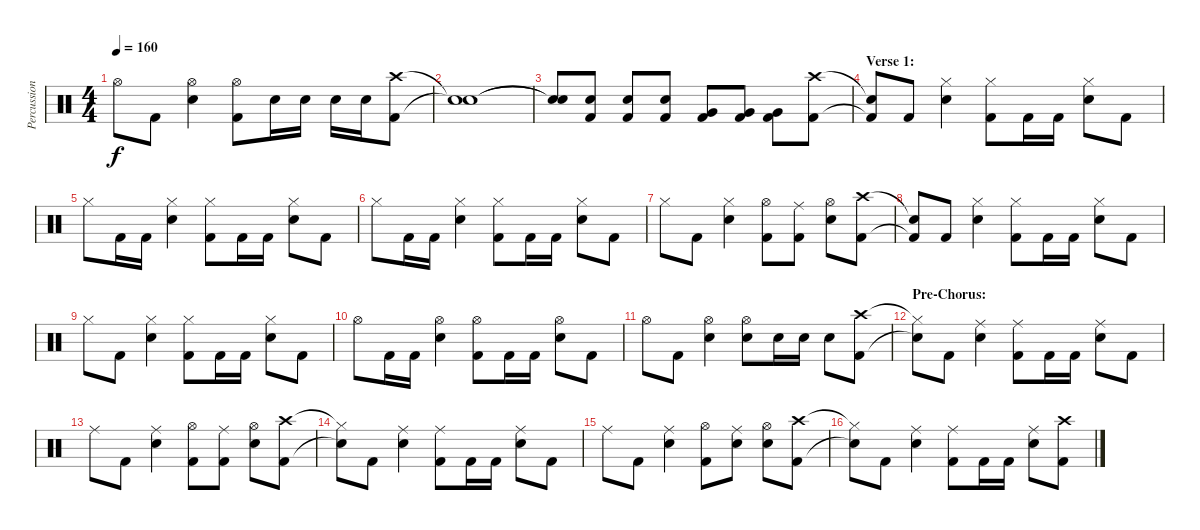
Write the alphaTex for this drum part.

\track ("Percussion" "Percussion") {instrument percussion}
\staff {score}
\articulation defaults
\ts (4 4)
\tempo 160
\clef neutral
\ks c "Hi-Hat (open)".8{dy f} "Kick (hit) 2".8
("Hi-Hat (open)" "Electric Snare (hit)").4 ("Hi-Hat (open)" "Kick (hit) 2").8 "Electric Snare (hit)".16 "Electric Snare (hit)".16 "Electric Snare (hit)".16 "Electric Snare (hit)".16 ("Crash high (hit)" "Kick (hit) 2").8 |
("Snare (hit)"{t} "Snare (hit)"{t}).1 |
("Snare (hit)"{t} "Snare (hit)"{t}).8 ("Electric Snare (hit)" "Kick (hit) 2").8 ("Electric Snare (hit)" "Kick (hit) 2").8 ("Electric Snare (hit)" "Kick (hit) 2").8 ("Very Low Tom (hit)" "Kick (hit) 2").8 ("Very Low Tom (hit)" "Kick (hit) 2").8 ("Very Low Tom (hit)" "Kick (hit) 2").8 ("Crash high (hit)" "Kick (hit) 2").8 |
\section ("" "Verse 1:")
("Snare (hit)"{t} "Kick (hit) 2"{t}).8 "Kick (hit) 2".8 ("Hi-Hat (closed)" "Electric Snare (hit)").4 ("Hi-Hat (closed)" "Kick (hit) 2").8 "Kick (hit) 2".16 "Kick (hit) 2".16 ("Hi-Hat (closed)" "Electric Snare (hit)").8 "Kick (hit) 2".8 |
"Hi-Hat (closed)".8 "Kick (hit) 2".16 "Kick (hit) 2".16 ("Hi-Hat (closed)" "Electric Snare (hit)").4 ("Hi-Hat (closed)" "Kick (hit) 2").8 "Kick (hit) 2".16 "Kick (hit) 2".16 ("Hi-Hat (closed)" "Electric Snare (hit)").8 "Kick (hit) 2".8 |
"Hi-Hat (closed)".8 "Kick (hit) 2".16 "Kick (hit) 2".16 ("Hi-Hat (closed)" "Electric Snare (hit)").4 ("Hi-Hat (closed)" "Kick (hit) 2").8 "Kick (hit) 2".16 "Kick (hit) 2".16 ("Hi-Hat (closed)" "Electric Snare (hit)").8 "Kick (hit) 2".8 |
"Hi-Hat (closed)".8 "Kick (hit) 2".8 ("Hi-Hat (closed)" "Electric Snare (hit)").4 ("Hi-Hat (open)" "Kick (hit) 2").8 ("Ride (middle)" "Kick (hit) 2").8 ("Hi-Hat (open)" "Electric Snare (hit)").8 ("Crash high (hit)" "Kick (hit) 2").8 |
("Snare (hit)"{t} "Kick (hit) 2"{t}).8 "Kick (hit) 2".8 ("Hi-Hat (closed)" "Electric Snare (hit)").4 ("Hi-Hat (closed)" "Kick (hit) 2").8 "Kick (hit) 2".16 "Kick (hit) 2".16 ("Hi-Hat (closed)" "Electric Snare (hit)").8 "Kick (hit) 2".8 |
"Hi-Hat (closed)".8 "Kick (hit) 2".8 ("Hi-Hat (closed)" "Electric Snare (hit)").4 ("Hi-Hat (closed)" "Kick (hit) 2").8 "Kick (hit) 2".16 "Kick (hit) 2".16 ("Hi-Hat (closed)" "Electric Snare (hit)").8 "Kick (hit) 2".8 |
"Hi-Hat (open)".8 "Kick (hit) 2".16 "Kick (hit) 2".16 ("Hi-Hat (open)" "Electric Snare (hit)").4 ("Hi-Hat (open)" "Kick (hit) 2").8 "Kick (hit) 2".16 "Kick (hit) 2".16 ("Hi-Hat (open)" "Electric Snare (hit)").8 "Kick (hit) 2".8 |
"Hi-Hat (open)".8 "Kick (hit) 2".8 ("Hi-Hat (open)" "Electric Snare (hit)").4 ("Hi-Hat (open)" "Electric Snare (hit)").8 "Electric Snare (hit)".16 "Electric Snare (hit)".16 "Electric Snare (hit)".8 ("Crash high (hit)" "Kick (hit) 2").8 |
\section ("" "Pre-Chorus:")
("Hi-Hat (closed)"{t} "Snare (hit)"{t}).8 "Kick (hit) 2".8 ("Ride (middle)" "Electric Snare (hit)").4 ("Ride (middle)" "Kick (hit) 2").8 "Kick (hit) 2".16 "Kick (hit) 2".16 ("Ride (middle)" "Electric Snare (hit)").8 "Kick (hit) 2".8 |
"Ride (middle)".8 "Kick (hit) 2".8 ("Ride (middle)" "Electric Snare (hit)").4 ("Hi-Hat (open)" "Kick (hit) 2").8 ("Ride (middle)" "Kick (hit) 2").8 ("Hi-Hat (open)" "Electric Snare (hit)").8 ("Crash high (hit)" "Kick (hit) 2").8 |
("Hi-Hat (closed)"{t} "Snare (hit)"{t}).8 "Kick (hit) 2".8 ("Ride (middle)" "Electric Snare (hit)").4 ("Ride (middle)" "Kick (hit) 2").8 "Kick (hit) 2".16 "Kick (hit) 2".16 ("Ride (middle)" "Electric Snare (hit)").8 "Kick (hit) 2".8 |
"Ride (middle)".8 "Kick (hit) 2".8 ("Ride (middle)" "Electric Snare (hit)").4 ("Hi-Hat (open)" "Kick (hit) 2").8 ("Ride (middle)" "Electric Snare (hit)").8 ("Hi-Hat (open)" "Electric Snare (hit)").8 ("Crash high (hit)" "Kick (hit) 2").8 |
("Hi-Hat (closed)"{t} "Snare (hit)"{t}).8 "Kick (hit) 2".8 ("Ride (middle)" "Electric Snare (hit)").4 ("Ride (middle)" "Kick (hit) 2").8 "Kick (hit) 2".16 "Kick (hit) 2".16 ("Ride (middle)" "Electric Snare (hit)").8 ("Crash high (hit)" "Kick (hit) 2").8
